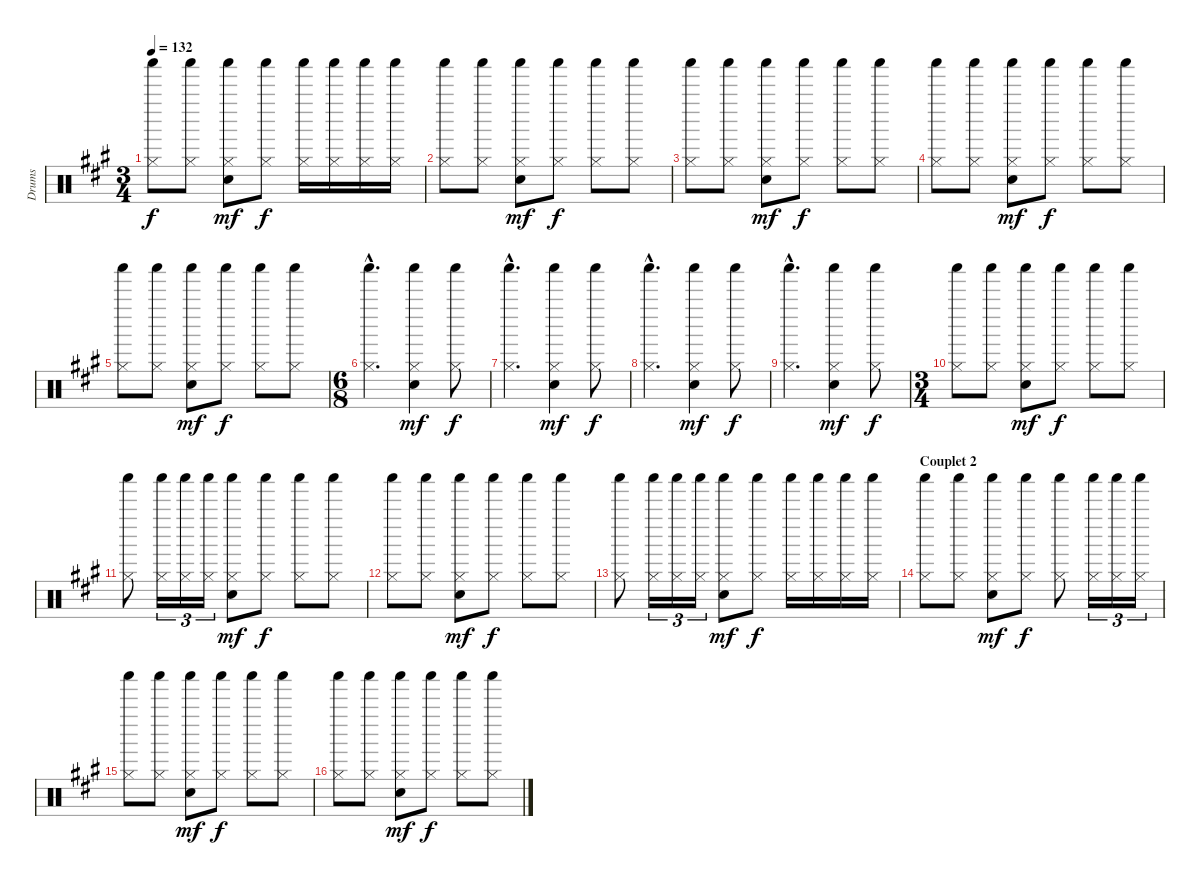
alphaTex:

\track ("Drums" "Drums") {instrument percussion}
\staff {score}
\articulation defaults
\ts (3 4)
\tempo 132
\clef neutral
\ks a
("Shaker (hit)" "Hi-Hat (closed)").8{dy f} ("Shaker (hit)" "Hi-Hat (closed)").8 ("Shaker (hit)" "Hi-Hat (closed)" "Electric Snare (hit)").8{dy mf} ("Shaker (hit)" "Hi-Hat (closed)").8{dy f} ("Shaker (hit)" "Hi-Hat (closed)").16 ("Shaker (hit)" "Hi-Hat (closed)").16 ("Shaker (hit)" "Hi-Hat (closed)").16 ("Shaker (hit)" "Hi-Hat (closed)").16 |
("Shaker (hit)" "Hi-Hat (closed)").8 ("Shaker (hit)" "Hi-Hat (closed)").8 ("Shaker (hit)" "Hi-Hat (closed)" "Electric Snare (hit)").8{dy mf} ("Shaker (hit)" "Hi-Hat (closed)").8{dy f} ("Shaker (hit)" "Hi-Hat (closed)").8 ("Shaker (hit)" "Hi-Hat (closed)").8 |
("Shaker (hit)" "Hi-Hat (closed)").8 ("Shaker (hit)" "Hi-Hat (closed)").8 ("Shaker (hit)" "Hi-Hat (closed)" "Electric Snare (hit)").8{dy mf} ("Shaker (hit)" "Hi-Hat (closed)").8{dy f} ("Shaker (hit)" "Hi-Hat (closed)").8 ("Shaker (hit)" "Hi-Hat (closed)").8 |
("Shaker (hit)" "Hi-Hat (closed)").8 ("Shaker (hit)" "Hi-Hat (closed)").8 ("Shaker (hit)" "Hi-Hat (closed)" "Electric Snare (hit)").8{dy mf} ("Shaker (hit)" "Hi-Hat (closed)").8{dy f} ("Shaker (hit)" "Hi-Hat (closed)").8 ("Shaker (hit)" "Hi-Hat (closed)").8 |
("Shaker (hit)" "Hi-Hat (closed)").8 ("Shaker (hit)" "Hi-Hat (closed)").8 ("Shaker (hit)" "Hi-Hat (closed)" "Electric Snare (hit)").8{dy mf} ("Shaker (hit)" "Hi-Hat (closed)").8{dy f} ("Shaker (hit)" "Hi-Hat (closed)").8 ("Shaker (hit)" "Hi-Hat (closed)").8 |
\ts (6 8)
("Shaker (hit)"{hac} "Hi-Hat (closed)"{hac}).4{d} ("Shaker (hit)" "Hi-Hat (closed)" "Electric Snare (hit)").4{dy mf} ("Shaker (hit)" "Hi-Hat (closed)").8{dy f} |
("Shaker (hit)"{hac} "Hi-Hat (closed)"{hac}).4{d} ("Shaker (hit)" "Hi-Hat (closed)" "Electric Snare (hit)").4{dy mf} ("Shaker (hit)" "Hi-Hat (closed)").8{dy f} |
("Shaker (hit)"{hac} "Hi-Hat (closed)"{hac}).4{d} ("Shaker (hit)" "Hi-Hat (closed)" "Electric Snare (hit)").4{dy mf} ("Shaker (hit)" "Hi-Hat (closed)").8{dy f} |
("Shaker (hit)"{hac} "Hi-Hat (closed)"{hac}).4{d} ("Shaker (hit)" "Hi-Hat (closed)" "Electric Snare (hit)").4{dy mf} ("Shaker (hit)" "Hi-Hat (closed)").8{dy f} |
\ts (3 4)
("Shaker (hit)" "Hi-Hat (closed)").8 ("Shaker (hit)" "Hi-Hat (closed)").8 ("Shaker (hit)" "Hi-Hat (closed)" "Electric Snare (hit)").8{dy mf} ("Shaker (hit)" "Hi-Hat (closed)").8{dy f} ("Shaker (hit)" "Hi-Hat (closed)").8 ("Shaker (hit)" "Hi-Hat (closed)").8 |
("Shaker (hit)" "Hi-Hat (closed)").8 ("Shaker (hit)" "Hi-Hat (closed)").16{tu (3 2)} ("Shaker (hit)" "Hi-Hat (closed)").16{tu (3 2)} ("Shaker (hit)" "Hi-Hat (closed)").16{tu (3 2)} ("Shaker (hit)" "Hi-Hat (closed)" "Electric Snare (hit)").8{dy mf} ("Shaker (hit)" "Hi-Hat (closed)").8{dy f} ("Shaker (hit)" "Hi-Hat (closed)").8 ("Shaker (hit)" "Hi-Hat (closed)").8 |
("Shaker (hit)" "Hi-Hat (closed)").8 ("Shaker (hit)" "Hi-Hat (closed)").8 ("Shaker (hit)" "Hi-Hat (closed)" "Electric Snare (hit)").8{dy mf} ("Shaker (hit)" "Hi-Hat (closed)").8{dy f} ("Shaker (hit)" "Hi-Hat (closed)").8 ("Shaker (hit)" "Hi-Hat (closed)").8 |
("Shaker (hit)" "Hi-Hat (closed)").8 ("Shaker (hit)" "Hi-Hat (closed)").16{tu (3 2)} ("Shaker (hit)" "Hi-Hat (closed)").16{tu (3 2)} ("Shaker (hit)" "Hi-Hat (closed)").16{tu (3 2)} ("Shaker (hit)" "Hi-Hat (closed)" "Electric Snare (hit)").8{dy mf} ("Shaker (hit)" "Hi-Hat (closed)").8{dy f} ("Shaker (hit)" "Hi-Hat (closed)").16 ("Shaker (hit)" "Hi-Hat (closed)").16 ("Shaker (hit)" "Hi-Hat (closed)").16 ("Shaker (hit)" "Hi-Hat (closed)").16 |
\section ("" "Couplet 2")
("Shaker (hit)" "Hi-Hat (closed)").8 ("Shaker (hit)" "Hi-Hat (closed)").8 ("Shaker (hit)" "Hi-Hat (closed)" "Electric Snare (hit)").8{dy mf} ("Shaker (hit)" "Hi-Hat (closed)").8{dy f} ("Shaker (hit)" "Hi-Hat (closed)").8 ("Shaker (hit)" "Hi-Hat (closed)").16{tu (3 2)} ("Shaker (hit)" "Hi-Hat (closed)").16{tu (3 2)} ("Shaker (hit)" "Hi-Hat (closed)").16{tu (3 2)} |
("Shaker (hit)" "Hi-Hat (closed)").8 ("Shaker (hit)" "Hi-Hat (closed)").8 ("Shaker (hit)" "Hi-Hat (closed)" "Electric Snare (hit)").8{dy mf} ("Shaker (hit)" "Hi-Hat (closed)").8{dy f} ("Shaker (hit)" "Hi-Hat (closed)").8 ("Shaker (hit)" "Hi-Hat (closed)").8 |
("Shaker (hit)" "Hi-Hat (closed)").8 ("Shaker (hit)" "Hi-Hat (closed)").8 ("Shaker (hit)" "Hi-Hat (closed)" "Electric Snare (hit)").8{dy mf} ("Shaker (hit)" "Hi-Hat (closed)").8{dy f} ("Shaker (hit)" "Hi-Hat (closed)").8 ("Shaker (hit)" "Hi-Hat (closed)").8
